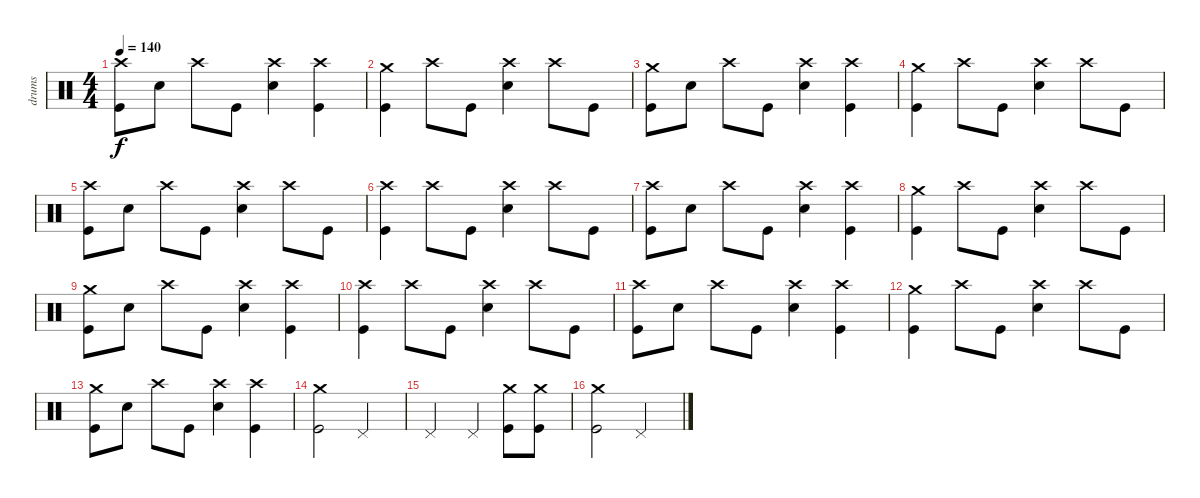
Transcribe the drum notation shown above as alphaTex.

\track ("drums" "drums") {instrument percussion}
\staff {score}
\articulation defaults
\ts (4 4)
\tempo 140
\clef neutral
\ks c
("Crash high (hit)" "Kick (hit)").8{dy f} "Snare (hit) 2".8 "Crash high (hit)".8 "Kick (hit)".8 ("Crash high (hit)" "Snare (hit) 2").4 ("Crash high (hit)" "Kick (hit)").4 |
("Crash medium (hit)" "Kick (hit)").4 "Crash high (hit)".8 "Kick (hit)".8 ("Crash high (hit)" "Snare (hit) 2").4 "Crash high (hit)".8 "Kick (hit)".8 |
("Crash medium (hit)" "Kick (hit)").8 "Snare (hit) 2".8 "Crash high (hit)".8 "Kick (hit)".8 ("Crash high (hit)" "Snare (hit) 2").4 ("Crash high (hit)" "Kick (hit)").4 |
("Crash medium (hit)" "Kick (hit)").4 "Crash high (hit)".8 "Kick (hit)".8 ("Crash high (hit)" "Snare (hit) 2").4 "Crash high (hit)".8 "Kick (hit)".8 |
("Crash high (hit)" "Kick (hit)").8 "Snare (hit) 2".8 "Crash high (hit)".8 "Kick (hit)".8 ("Crash high (hit)" "Snare (hit) 2").4 "Crash high (hit)".8 "Kick (hit)".8 |
("Crash high (hit)" "Kick (hit)").4 "Crash high (hit)".8 "Kick (hit)".8 ("Crash high (hit)" "Snare (hit) 2").4 "Crash high (hit)".8 "Kick (hit)".8 |
("Crash high (hit)" "Kick (hit)").8 "Snare (hit) 2".8 "Crash high (hit)".8 "Kick (hit)".8 ("Crash high (hit)" "Snare (hit) 2").4 ("Crash high (hit)" "Kick (hit)").4 |
("Crash medium (hit)" "Kick (hit)").4 "Crash high (hit)".8 "Kick (hit)".8 ("Crash high (hit)" "Snare (hit) 2").4 "Crash high (hit)".8 "Kick (hit)".8 |
("Crash medium (hit)" "Kick (hit)").8 "Snare (hit) 2".8 "Crash high (hit)".8 "Kick (hit)".8 ("Crash high (hit)" "Snare (hit) 2").4 ("Crash high (hit)" "Kick (hit)").4 |
("Crash high (hit)" "Kick (hit)").4 "Crash high (hit)".8 "Kick (hit)".8 ("Crash high (hit)" "Snare (hit) 2").4 "Crash high (hit)".8 "Kick (hit)".8 |
("Crash high (hit)" "Kick (hit)").8 "Snare (hit) 2".8 "Crash high (hit)".8 "Kick (hit)".8 ("Crash high (hit)" "Snare (hit) 2").4 ("Crash high (hit)" "Kick (hit)").4 |
("Crash medium (hit)" "Kick (hit)").4 "Crash high (hit)".8 "Kick (hit)".8 ("Crash high (hit)" "Snare (hit) 2").4 "Crash high (hit)".8 "Kick (hit)".8 |
("Crash medium (hit)" "Kick (hit)").8 "Snare (hit) 2".8 "Crash high (hit)".8 "Kick (hit)".8 ("Crash high (hit)" "Snare (hit) 2").4 ("Crash high (hit)" "Kick (hit)").4 |
("Crash medium (hit)" "Kick (hit)").2 "Pedal Hi-Hat (hit)".2 |
"Pedal Hi-Hat (hit)".2 "Pedal Hi-Hat (hit)".4 ("Kick (hit)" "Crash medium (hit)").8 ("Kick (hit)" "Crash medium (hit)").8 |
("Kick (hit)" "Crash medium (hit)").2 "Pedal Hi-Hat (hit)".2
